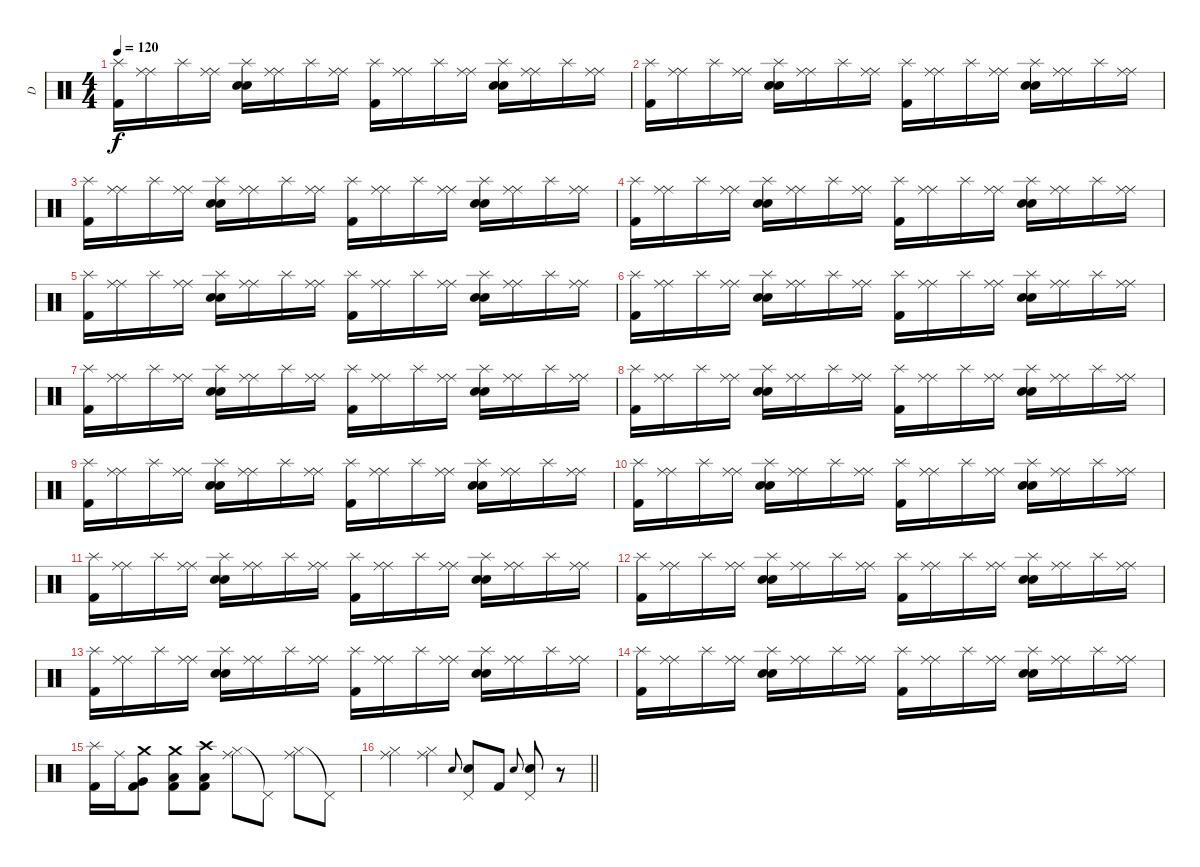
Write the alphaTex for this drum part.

\track ("D" "D") {instrument percussion}
\staff {score}
\articulation defaults
\ts (4 4)
\tempo 120
\clef neutral
\ks c
("Kick (hit) 2" "Splash (hit)").16{dy f} ("Ride (middle)" "Ride (middle)").16 "Splash (hit)".16 ("Ride (middle)" "Ride (middle)").16 ("Electric Snare (hit)" "Electric Snare (hit)" "Splash (hit)").16 ("Ride (middle)" "Ride (middle)").16 "Splash (hit)".16 ("Ride (middle)" "Ride (middle)").16 ("Kick (hit) 2" "Splash (hit)").16 ("Ride (middle)" "Ride (middle)").16 "Splash (hit)".16 ("Ride (middle)" "Ride (middle)").16 ("Electric Snare (hit)" "Electric Snare (hit)" "Splash (hit)").16 ("Ride (middle)" "Ride (middle)").16 "Splash (hit)".16 ("Ride (middle)" "Ride (middle)").16 |
("Kick (hit) 2" "Splash (hit)").16 ("Ride (middle)" "Ride (middle)").16 "Splash (hit)".16 ("Ride (middle)" "Ride (middle)").16 ("Electric Snare (hit)" "Electric Snare (hit)" "Splash (hit)").16 ("Ride (middle)" "Ride (middle)").16 "Splash (hit)".16 ("Ride (middle)" "Ride (middle)").16 ("Kick (hit) 2" "Splash (hit)").16 ("Ride (middle)" "Ride (middle)").16 "Splash (hit)".16 ("Ride (middle)" "Ride (middle)").16 ("Electric Snare (hit)" "Electric Snare (hit)" "Splash (hit)").16 ("Ride (middle)" "Ride (middle)").16 "Splash (hit)".16 ("Ride (middle)" "Ride (middle)").16 |
("Kick (hit) 2" "Splash (hit)").16 ("Ride (middle)" "Ride (middle)").16 "Splash (hit)".16 ("Ride (middle)" "Ride (middle)").16 ("Electric Snare (hit)" "Electric Snare (hit)" "Splash (hit)").16 ("Ride (middle)" "Ride (middle)").16 "Splash (hit)".16 ("Ride (middle)" "Ride (middle)").16 ("Kick (hit) 2" "Splash (hit)").16 ("Ride (middle)" "Ride (middle)").16 "Splash (hit)".16 ("Ride (middle)" "Ride (middle)").16 ("Electric Snare (hit)" "Electric Snare (hit)" "Splash (hit)").16 ("Ride (middle)" "Ride (middle)").16 "Splash (hit)".16 ("Ride (middle)" "Ride (middle)").16 |
("Kick (hit) 2" "Splash (hit)").16 ("Ride (middle)" "Ride (middle)").16 "Splash (hit)".16 ("Ride (middle)" "Ride (middle)").16 ("Electric Snare (hit)" "Electric Snare (hit)" "Splash (hit)").16 ("Ride (middle)" "Ride (middle)").16 "Splash (hit)".16 ("Ride (middle)" "Ride (middle)").16 ("Kick (hit) 2" "Splash (hit)").16 ("Ride (middle)" "Ride (middle)").16 "Splash (hit)".16 ("Ride (middle)" "Ride (middle)").16 ("Electric Snare (hit)" "Electric Snare (hit)" "Splash (hit)").16 ("Ride (middle)" "Ride (middle)").16 "Splash (hit)".16 ("Ride (middle)" "Ride (middle)").16 |
("Kick (hit) 2" "Splash (hit)").16 ("Ride (middle)" "Ride (middle)").16 "Splash (hit)".16 ("Ride (middle)" "Ride (middle)").16 ("Electric Snare (hit)" "Electric Snare (hit)" "Splash (hit)").16 ("Ride (middle)" "Ride (middle)").16 "Splash (hit)".16 ("Ride (middle)" "Ride (middle)").16 ("Kick (hit) 2" "Splash (hit)").16 ("Ride (middle)" "Ride (middle)").16 "Splash (hit)".16 ("Ride (middle)" "Ride (middle)").16 ("Electric Snare (hit)" "Electric Snare (hit)" "Splash (hit)").16 ("Ride (middle)" "Ride (middle)").16 "Splash (hit)".16 ("Ride (middle)" "Ride (middle)").16 |
("Kick (hit) 2" "Splash (hit)").16 ("Ride (middle)" "Ride (middle)").16 "Splash (hit)".16 ("Ride (middle)" "Ride (middle)").16 ("Electric Snare (hit)" "Electric Snare (hit)" "Splash (hit)").16 ("Ride (middle)" "Ride (middle)").16 "Splash (hit)".16 ("Ride (middle)" "Ride (middle)").16 ("Kick (hit) 2" "Splash (hit)").16 ("Ride (middle)" "Ride (middle)").16 "Splash (hit)".16 ("Ride (middle)" "Ride (middle)").16 ("Electric Snare (hit)" "Electric Snare (hit)" "Splash (hit)").16 ("Ride (middle)" "Ride (middle)").16 "Splash (hit)".16 ("Ride (middle)" "Ride (middle)").16 |
("Kick (hit) 2" "Splash (hit)").16 ("Ride (middle)" "Ride (middle)").16 "Splash (hit)".16 ("Ride (middle)" "Ride (middle)").16 ("Electric Snare (hit)" "Electric Snare (hit)" "Splash (hit)").16 ("Ride (middle)" "Ride (middle)").16 "Splash (hit)".16 ("Ride (middle)" "Ride (middle)").16 ("Kick (hit) 2" "Splash (hit)").16 ("Ride (middle)" "Ride (middle)").16 "Splash (hit)".16 ("Ride (middle)" "Ride (middle)").16 ("Electric Snare (hit)" "Electric Snare (hit)" "Splash (hit)").16 ("Ride (middle)" "Ride (middle)").16 "Splash (hit)".16 ("Ride (middle)" "Ride (middle)").16 |
("Kick (hit) 2" "Splash (hit)").16 ("Ride (middle)" "Ride (middle)").16 "Splash (hit)".16 ("Ride (middle)" "Ride (middle)").16 ("Electric Snare (hit)" "Electric Snare (hit)" "Splash (hit)").16 ("Ride (middle)" "Ride (middle)").16 "Splash (hit)".16 ("Ride (middle)" "Ride (middle)").16 ("Kick (hit) 2" "Splash (hit)").16 ("Ride (middle)" "Ride (middle)").16 "Splash (hit)".16 ("Ride (middle)" "Ride (middle)").16 ("Electric Snare (hit)" "Electric Snare (hit)" "Splash (hit)").16 ("Ride (middle)" "Ride (middle)").16 "Splash (hit)".16 ("Ride (middle)" "Ride (middle)").16 |
("Kick (hit) 2" "Splash (hit)").16 ("Ride (middle)" "Ride (middle)").16 "Splash (hit)".16 ("Ride (middle)" "Ride (middle)").16 ("Electric Snare (hit)" "Electric Snare (hit)" "Splash (hit)").16 ("Ride (middle)" "Ride (middle)").16 "Splash (hit)".16 ("Ride (middle)" "Ride (middle)").16 ("Kick (hit) 2" "Splash (hit)").16 ("Ride (middle)" "Ride (middle)").16 "Splash (hit)".16 ("Ride (middle)" "Ride (middle)").16 ("Electric Snare (hit)" "Electric Snare (hit)" "Splash (hit)").16 ("Ride (middle)" "Ride (middle)").16 "Splash (hit)".16 ("Ride (middle)" "Ride (middle)").16 |
("Kick (hit) 2" "Splash (hit)").16 ("Ride (middle)" "Ride (middle)").16 "Splash (hit)".16 ("Ride (middle)" "Ride (middle)").16 ("Electric Snare (hit)" "Electric Snare (hit)" "Splash (hit)").16 ("Ride (middle)" "Ride (middle)").16 "Splash (hit)".16 ("Ride (middle)" "Ride (middle)").16 ("Kick (hit) 2" "Splash (hit)").16 ("Ride (middle)" "Ride (middle)").16 "Splash (hit)".16 ("Ride (middle)" "Ride (middle)").16 ("Electric Snare (hit)" "Electric Snare (hit)" "Splash (hit)").16 ("Ride (middle)" "Ride (middle)").16 "Splash (hit)".16 ("Ride (middle)" "Ride (middle)").16 |
("Kick (hit) 2" "Splash (hit)").16 ("Ride (middle)" "Ride (middle)").16 "Splash (hit)".16 ("Ride (middle)" "Ride (middle)").16 ("Electric Snare (hit)" "Electric Snare (hit)" "Splash (hit)").16 ("Ride (middle)" "Ride (middle)").16 "Splash (hit)".16 ("Ride (middle)" "Ride (middle)").16 ("Kick (hit) 2" "Splash (hit)").16 ("Ride (middle)" "Ride (middle)").16 "Splash (hit)".16 ("Ride (middle)" "Ride (middle)").16 ("Electric Snare (hit)" "Electric Snare (hit)" "Splash (hit)").16 ("Ride (middle)" "Ride (middle)").16 "Splash (hit)".16 ("Ride (middle)" "Ride (middle)").16 |
("Kick (hit) 2" "Splash (hit)").16 ("Ride (middle)" "Ride (middle)").16 "Splash (hit)".16 ("Ride (middle)" "Ride (middle)").16 ("Electric Snare (hit)" "Electric Snare (hit)" "Splash (hit)").16 ("Ride (middle)" "Ride (middle)").16 "Splash (hit)".16 ("Ride (middle)" "Ride (middle)").16 ("Kick (hit) 2" "Splash (hit)").16 ("Ride (middle)" "Ride (middle)").16 "Splash (hit)".16 ("Ride (middle)" "Ride (middle)").16 ("Electric Snare (hit)" "Electric Snare (hit)" "Splash (hit)").16 ("Ride (middle)" "Ride (middle)").16 "Splash (hit)".16 ("Ride (middle)" "Ride (middle)").16 |
("Kick (hit) 2" "Splash (hit)").16 ("Ride (middle)" "Ride (middle)").16 "Splash (hit)".16 ("Ride (middle)" "Ride (middle)").16 ("Electric Snare (hit)" "Electric Snare (hit)" "Splash (hit)").16 ("Ride (middle)" "Ride (middle)").16 "Splash (hit)".16 ("Ride (middle)" "Ride (middle)").16 ("Kick (hit) 2" "Splash (hit)").16 ("Ride (middle)" "Ride (middle)").16 "Splash (hit)".16 ("Ride (middle)" "Ride (middle)").16 ("Electric Snare (hit)" "Electric Snare (hit)" "Splash (hit)").16 ("Ride (middle)" "Ride (middle)").16 "Splash (hit)".16 ("Ride (middle)" "Ride (middle)").16 |
("Kick (hit) 2" "Splash (hit)").16 ("Ride (middle)" "Ride (middle)").16 "Splash (hit)".16 ("Ride (middle)" "Ride (middle)").16 ("Electric Snare (hit)" "Electric Snare (hit)" "Splash (hit)").16 ("Ride (middle)" "Ride (middle)").16 "Splash (hit)".16 ("Ride (middle)" "Ride (middle)").16 ("Kick (hit) 2" "Splash (hit)").16 ("Ride (middle)" "Ride (middle)").16 "Splash (hit)".16 ("Ride (middle)" "Ride (middle)").16 ("Electric Snare (hit)" "Electric Snare (hit)" "Splash (hit)").16 ("Ride (middle)" "Ride (middle)").16 "Splash (hit)".16 ("Ride (middle)" "Ride (middle)").16 |
("Kick (hit) 2" "Splash (hit)").16 "Ride (middle)".16 ("Crash medium (hit)" "Very Low Tom (hit)" "Kick (hit) 2").8 ("Crash medium (hit)" "Low Tom (hit)" "Kick (hit) 2").8 ("Crash high (hit)" "Low Tom (hit)" "Kick (hit) 2").8 ("Hi-Hat (closed)" "Ride (middle)").8 "Pedal Hi-Hat (hit)"{t}.8 ("Hi-Hat (closed)" "Ride (middle)").8 "Pedal Hi-Hat (hit)"{t}.8 |
\barLineRight lightlight
("Hi-Hat (closed)" "Ride (middle)").4 ("Hi-Hat (closed)" "Ride (middle)").4 "Electric Snare (hit)".8{gr onbeat} ("Electric Snare (hit)" "Pedal Hi-Hat (hit)").8 "Kick (hit) 2".8 "Electric Snare (hit)".8{gr onbeat} ("Electric Snare (hit)" "Pedal Hi-Hat (hit)").8 r.8
